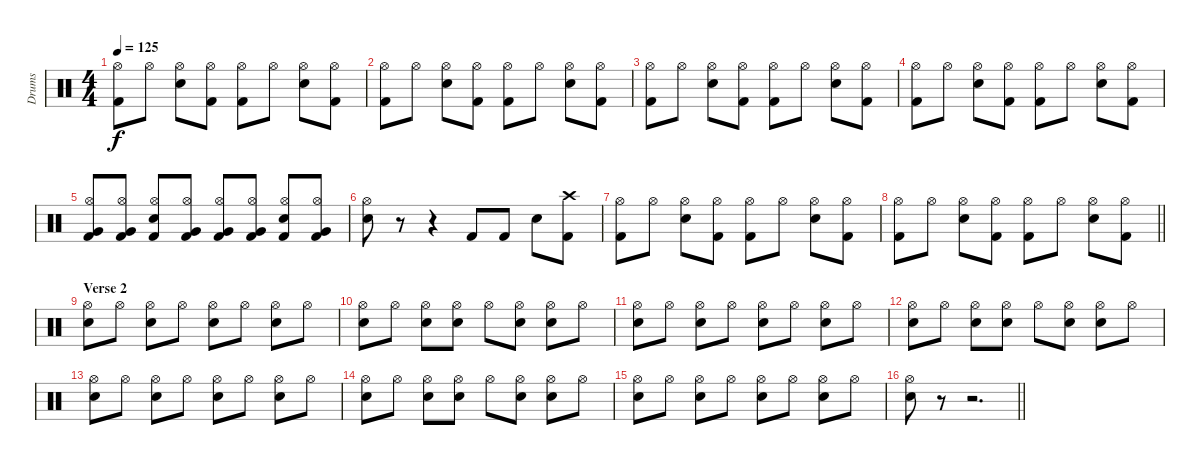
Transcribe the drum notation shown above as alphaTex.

\track ("Drums" "Drums") {instrument percussion}
\staff {score}
\articulation defaults
\ts (4 4)
\tempo 125
\clef neutral
\ks c
("Kick (hit) 2" "Hi-Hat (open)").8{dy f} "Hi-Hat (open)".8 ("Electric Snare (hit)" "Hi-Hat (open)").8 ("Kick (hit) 2" "Hi-Hat (open)").8 ("Kick (hit) 2" "Hi-Hat (open)").8 "Hi-Hat (open)".8 ("Electric Snare (hit)" "Hi-Hat (open)").8 ("Kick (hit) 2" "Hi-Hat (open)").8 |
("Kick (hit) 2" "Hi-Hat (open)").8 "Hi-Hat (open)".8 ("Electric Snare (hit)" "Hi-Hat (open)").8 ("Kick (hit) 2" "Hi-Hat (open)").8 ("Kick (hit) 2" "Hi-Hat (open)").8 "Hi-Hat (open)".8 ("Electric Snare (hit)" "Hi-Hat (open)").8 ("Kick (hit) 2" "Hi-Hat (open)").8 |
("Kick (hit) 2" "Hi-Hat (open)").8 "Hi-Hat (open)".8 ("Electric Snare (hit)" "Hi-Hat (open)").8 ("Kick (hit) 2" "Hi-Hat (open)").8 ("Kick (hit) 2" "Hi-Hat (open)").8 "Hi-Hat (open)".8 ("Electric Snare (hit)" "Hi-Hat (open)").8 ("Kick (hit) 2" "Hi-Hat (open)").8 |
("Kick (hit) 2" "Hi-Hat (open)").8 "Hi-Hat (open)".8 ("Electric Snare (hit)" "Hi-Hat (open)").8 ("Kick (hit) 2" "Hi-Hat (open)").8 ("Kick (hit) 2" "Hi-Hat (open)").8 "Hi-Hat (open)".8 ("Electric Snare (hit)" "Hi-Hat (open)").8 ("Kick (hit) 2" "Hi-Hat (open)").8 |
("Very Low Tom (hit)" "Kick (hit) 2" "Hi-Hat (open)").8 ("Very Low Tom (hit)" "Kick (hit) 2" "Hi-Hat (open)").8 ("Electric Snare (hit)" "Kick (hit) 2" "Hi-Hat (open)").8 ("Very Low Tom (hit)" "Kick (hit) 2" "Hi-Hat (open)").8 ("Very Low Tom (hit)" "Kick (hit) 2" "Hi-Hat (open)").8 ("Very Low Tom (hit)" "Kick (hit) 2" "Hi-Hat (open)").8 ("Electric Snare (hit)" "Kick (hit) 2" "Hi-Hat (open)").8 ("Very Low Tom (hit)" "Kick (hit) 2" "Hi-Hat (open)").8 |
("Electric Snare (hit)" "Hi-Hat (open)").8 r.8 r.4 "Kick (hit) 2".8 "Kick (hit) 2".8 "Electric Snare (hit)".8 ("Kick (hit) 2" "Crash high (hit)").8 |
("Kick (hit) 2" "Hi-Hat (open)").8 "Hi-Hat (open)".8 ("Electric Snare (hit)" "Hi-Hat (open)").8 ("Kick (hit) 2" "Hi-Hat (open)").8 ("Kick (hit) 2" "Hi-Hat (open)").8 "Hi-Hat (open)".8 ("Electric Snare (hit)" "Hi-Hat (open)").8 ("Kick (hit) 2" "Hi-Hat (open)").8 |
\barLineRight lightlight
("Kick (hit) 2" "Hi-Hat (open)").8 "Hi-Hat (open)".8 ("Electric Snare (hit)" "Hi-Hat (open)").8 ("Kick (hit) 2" "Hi-Hat (open)").8 ("Kick (hit) 2" "Hi-Hat (open)").8 "Hi-Hat (open)".8 ("Electric Snare (hit)" "Hi-Hat (open)").8 ("Kick (hit) 2" "Hi-Hat (open)").8 |
\section ("" "Verse 2")
("Electric Snare (hit)" "Hi-Hat (open)").8 "Hi-Hat (open)".8 ("Electric Snare (hit)" "Hi-Hat (open)").8 "Hi-Hat (open)".8 ("Electric Snare (hit)" "Hi-Hat (open)").8 "Hi-Hat (open)".8 ("Electric Snare (hit)" "Hi-Hat (open)").8 "Hi-Hat (open)".8 |
("Electric Snare (hit)" "Hi-Hat (open)").8 "Hi-Hat (open)".8 ("Electric Snare (hit)" "Hi-Hat (open)").8 ("Electric Snare (hit)" "Hi-Hat (open)").8 "Hi-Hat (open)".8 ("Electric Snare (hit)" "Hi-Hat (open)").8 ("Electric Snare (hit)" "Hi-Hat (open)").8 "Hi-Hat (open)".8 |
("Electric Snare (hit)" "Hi-Hat (open)").8 "Hi-Hat (open)".8 ("Electric Snare (hit)" "Hi-Hat (open)").8 "Hi-Hat (open)".8 ("Electric Snare (hit)" "Hi-Hat (open)").8 "Hi-Hat (open)".8 ("Electric Snare (hit)" "Hi-Hat (open)").8 "Hi-Hat (open)".8 |
("Electric Snare (hit)" "Hi-Hat (open)").8 "Hi-Hat (open)".8 ("Electric Snare (hit)" "Hi-Hat (open)").8 ("Electric Snare (hit)" "Hi-Hat (open)").8 "Hi-Hat (open)".8 ("Electric Snare (hit)" "Hi-Hat (open)").8 ("Electric Snare (hit)" "Hi-Hat (open)").8 "Hi-Hat (open)".8 |
("Electric Snare (hit)" "Hi-Hat (open)").8 "Hi-Hat (open)".8 ("Electric Snare (hit)" "Hi-Hat (open)").8 "Hi-Hat (open)".8 ("Electric Snare (hit)" "Hi-Hat (open)").8 "Hi-Hat (open)".8 ("Electric Snare (hit)" "Hi-Hat (open)").8 "Hi-Hat (open)".8 |
("Electric Snare (hit)" "Hi-Hat (open)").8 "Hi-Hat (open)".8 ("Electric Snare (hit)" "Hi-Hat (open)").8 ("Electric Snare (hit)" "Hi-Hat (open)").8 "Hi-Hat (open)".8 ("Electric Snare (hit)" "Hi-Hat (open)").8 ("Electric Snare (hit)" "Hi-Hat (open)").8 "Hi-Hat (open)".8 |
("Electric Snare (hit)" "Hi-Hat (open)").8 "Hi-Hat (open)".8 ("Electric Snare (hit)" "Hi-Hat (open)").8 "Hi-Hat (open)".8 ("Electric Snare (hit)" "Hi-Hat (open)").8 "Hi-Hat (open)".8 ("Electric Snare (hit)" "Hi-Hat (open)").8 "Hi-Hat (open)".8 |
\barLineRight lightlight
("Electric Snare (hit)" "Hi-Hat (open)").8 r.8 r.2{d}
